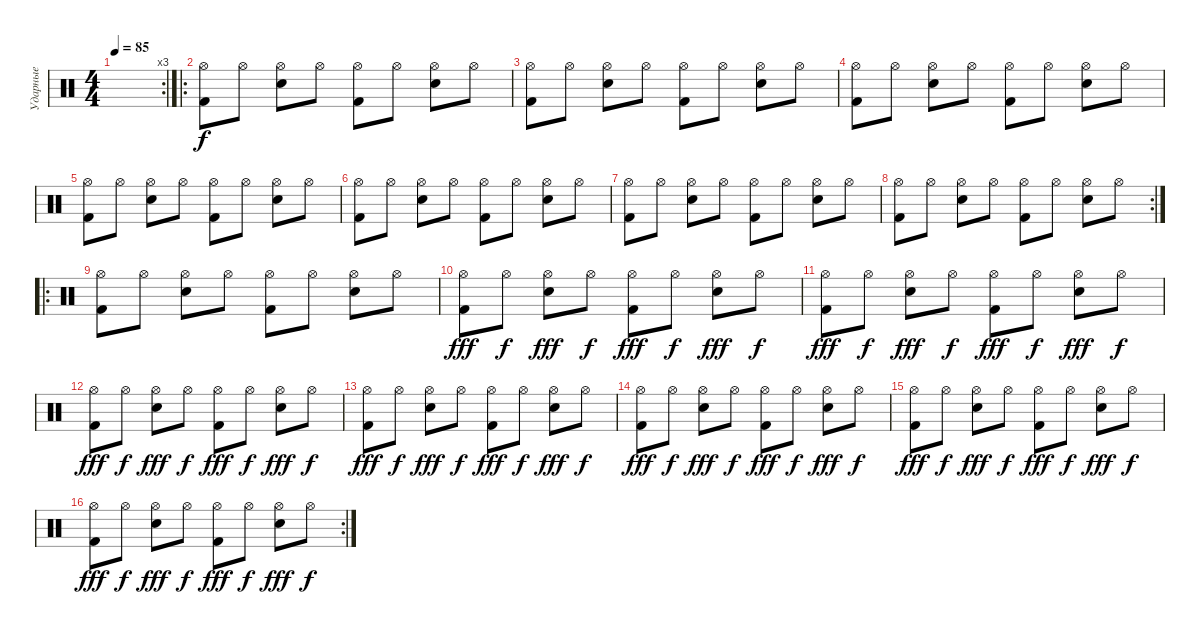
\track ("Ударные" "Ударные") {instrument percussion}
\staff {score}
\articulation defaults
\rc 3
\ts (4 4)
\tempo 85
\clef neutral
\ks c
|
\ro
("Kick (hit) 2" "Hi-Hat (open)").8 "Hi-Hat (open)".8 ("Snare (hit) 2" "Hi-Hat (open)").8 "Hi-Hat (open)".8 ("Kick (hit) 2" "Hi-Hat (open)").8 "Hi-Hat (open)".8 ("Snare (hit) 2" "Hi-Hat (open)").8 "Hi-Hat (open)".8 |
("Kick (hit) 2" "Hi-Hat (open)").8 "Hi-Hat (open)".8 ("Snare (hit) 2" "Hi-Hat (open)").8 "Hi-Hat (open)".8 ("Kick (hit) 2" "Hi-Hat (open)").8 "Hi-Hat (open)".8 ("Snare (hit) 2" "Hi-Hat (open)").8 "Hi-Hat (open)".8 |
("Kick (hit) 2" "Hi-Hat (open)").8 "Hi-Hat (open)".8 ("Snare (hit) 2" "Hi-Hat (open)").8 "Hi-Hat (open)".8 ("Kick (hit) 2" "Hi-Hat (open)").8 "Hi-Hat (open)".8 ("Snare (hit) 2" "Hi-Hat (open)").8 "Hi-Hat (open)".8 |
("Kick (hit) 2" "Hi-Hat (open)").8 "Hi-Hat (open)".8 ("Snare (hit) 2" "Hi-Hat (open)").8 "Hi-Hat (open)".8 ("Kick (hit) 2" "Hi-Hat (open)").8 "Hi-Hat (open)".8 ("Snare (hit) 2" "Hi-Hat (open)").8 "Hi-Hat (open)".8 |
("Kick (hit) 2" "Hi-Hat (open)").8 "Hi-Hat (open)".8 ("Snare (hit) 2" "Hi-Hat (open)").8 "Hi-Hat (open)".8 ("Kick (hit) 2" "Hi-Hat (open)").8 "Hi-Hat (open)".8 ("Snare (hit) 2" "Hi-Hat (open)").8 "Hi-Hat (open)".8 |
("Kick (hit) 2" "Hi-Hat (open)").8 "Hi-Hat (open)".8 ("Snare (hit) 2" "Hi-Hat (open)").8 "Hi-Hat (open)".8 ("Kick (hit) 2" "Hi-Hat (open)").8 "Hi-Hat (open)".8 ("Snare (hit) 2" "Hi-Hat (open)").8 "Hi-Hat (open)".8 |
\rc 2
("Kick (hit) 2" "Hi-Hat (open)").8 "Hi-Hat (open)".8 ("Snare (hit) 2" "Hi-Hat (open)").8 "Hi-Hat (open)".8 ("Kick (hit) 2" "Hi-Hat (open)").8 "Hi-Hat (open)".8 ("Snare (hit) 2" "Hi-Hat (open)").8 "Hi-Hat (open)".8 |
\ro
("Kick (hit) 2" "Hi-Hat (open)").8 "Hi-Hat (open)".8 ("Snare (hit) 2" "Hi-Hat (open)").8 "Hi-Hat (open)".8 ("Kick (hit) 2" "Hi-Hat (open)").8 "Hi-Hat (open)".8 ("Snare (hit) 2" "Hi-Hat (open)").8 "Hi-Hat (open)".8 |
("Kick (hit) 2" "Hi-Hat (open)").8{dy fff} "Hi-Hat (open)".8{dy f} ("Snare (hit) 2" "Hi-Hat (open)").8{dy fff} "Hi-Hat (open)".8{dy f} ("Kick (hit) 2" "Hi-Hat (open)").8{dy fff} "Hi-Hat (open)".8{dy f} ("Snare (hit) 2" "Hi-Hat (open)").8{dy fff} "Hi-Hat (open)".8{dy f} |
("Kick (hit) 2" "Hi-Hat (open)").8{dy fff} "Hi-Hat (open)".8{dy f} ("Snare (hit) 2" "Hi-Hat (open)").8{dy fff} "Hi-Hat (open)".8{dy f} ("Kick (hit) 2" "Hi-Hat (open)").8{dy fff} "Hi-Hat (open)".8{dy f} ("Snare (hit) 2" "Hi-Hat (open)").8{dy fff} "Hi-Hat (open)".8{dy f} |
("Kick (hit) 2" "Hi-Hat (open)").8{dy fff} "Hi-Hat (open)".8{dy f} ("Snare (hit) 2" "Hi-Hat (open)").8{dy fff} "Hi-Hat (open)".8{dy f} ("Kick (hit) 2" "Hi-Hat (open)").8{dy fff} "Hi-Hat (open)".8{dy f} ("Snare (hit) 2" "Hi-Hat (open)").8{dy fff} "Hi-Hat (open)".8{dy f} |
("Kick (hit) 2" "Hi-Hat (open)").8{dy fff} "Hi-Hat (open)".8{dy f} ("Snare (hit) 2" "Hi-Hat (open)").8{dy fff} "Hi-Hat (open)".8{dy f} ("Kick (hit) 2" "Hi-Hat (open)").8{dy fff} "Hi-Hat (open)".8{dy f} ("Snare (hit) 2" "Hi-Hat (open)").8{dy fff} "Hi-Hat (open)".8{dy f} |
("Kick (hit) 2" "Hi-Hat (open)").8{dy fff} "Hi-Hat (open)".8{dy f} ("Snare (hit) 2" "Hi-Hat (open)").8{dy fff} "Hi-Hat (open)".8{dy f} ("Kick (hit) 2" "Hi-Hat (open)").8{dy fff} "Hi-Hat (open)".8{dy f} ("Snare (hit) 2" "Hi-Hat (open)").8{dy fff} "Hi-Hat (open)".8{dy f} |
("Kick (hit) 2" "Hi-Hat (open)").8{dy fff} "Hi-Hat (open)".8{dy f} ("Snare (hit) 2" "Hi-Hat (open)").8{dy fff} "Hi-Hat (open)".8{dy f} ("Kick (hit) 2" "Hi-Hat (open)").8{dy fff} "Hi-Hat (open)".8{dy f} ("Snare (hit) 2" "Hi-Hat (open)").8{dy fff} "Hi-Hat (open)".8{dy f} |
\rc 2
("Kick (hit) 2" "Hi-Hat (open)").8{dy fff} "Hi-Hat (open)".8{dy f} ("Snare (hit) 2" "Hi-Hat (open)").8{dy fff} "Hi-Hat (open)".8{dy f} ("Kick (hit) 2" "Hi-Hat (open)").8{dy fff} "Hi-Hat (open)".8{dy f} ("Snare (hit) 2" "Hi-Hat (open)").8{dy fff} "Hi-Hat (open)".8{dy f}
